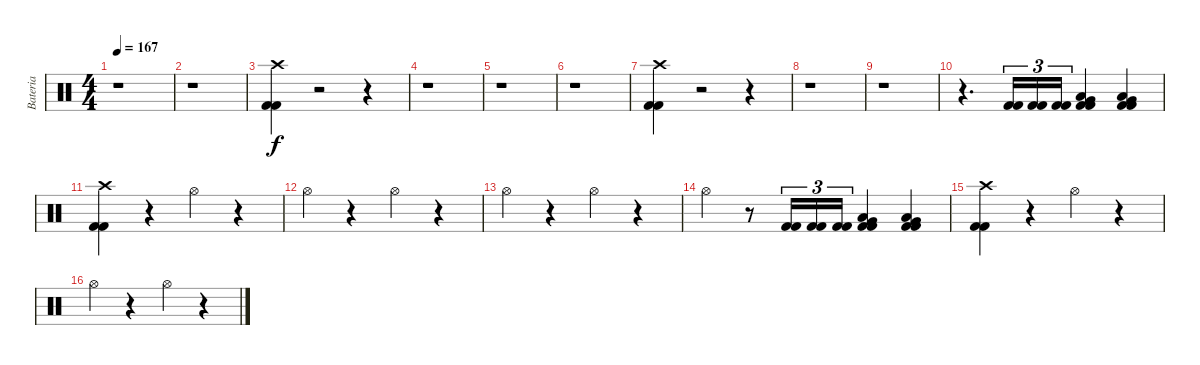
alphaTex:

\track ("Bateria" "Bateria") {instrument percussion}
\staff {score}
\articulation defaults
\ts (4 4)
\tempo 167
\clef neutral
\ks c
r.1{dy f} |
r.1 |
("Kick (hit) 2" "Kick (hit) 2" "Crash high (hit)").4 r.2 r.4 |
r.1 |
r.1 |
r.1 |
("Kick (hit) 2" "Kick (hit) 2" "Crash high (hit)").4 r.2 r.4 |
r.1 |
r.1 |
r.4{d} ("Kick (hit) 2" "Kick (hit) 2").16{tu (3 2)} ("Kick (hit) 2" "Kick (hit) 2").16{tu (3 2)} ("Kick (hit) 2" "Kick (hit) 2").16{tu (3 2)} ("Kick (hit) 2" "Kick (hit) 2" "Low Tom (hit)" "Very Low Tom (hit)").4 ("Kick (hit) 2" "Kick (hit) 2" "Low Tom (hit)" "Very Low Tom (hit)").4 |
("Kick (hit) 2" "Kick (hit) 2" "Crash high (hit)").4 r.4 "Hi-Hat (open)".4 r.4 |
"Hi-Hat (open)".4 r.4 "Hi-Hat (open)".4 r.4 |
"Hi-Hat (open)".4 r.4 "Hi-Hat (open)".4 r.4 |
"Hi-Hat (open)".4 r.8 ("Kick (hit) 2" "Kick (hit) 2").16{tu (3 2)} ("Kick (hit) 2" "Kick (hit) 2").16{tu (3 2)} ("Kick (hit) 2" "Kick (hit) 2").16{tu (3 2)} ("Kick (hit) 2" "Kick (hit) 2" "Low Tom (hit)" "Very Low Tom (hit)").4 ("Kick (hit) 2" "Kick (hit) 2" "Low Tom (hit)" "Very Low Tom (hit)").4 |
("Kick (hit) 2" "Kick (hit) 2" "Crash high (hit)").4 r.4 "Hi-Hat (open)".4 r.4 |
"Hi-Hat (open)".4 r.4 "Hi-Hat (open)".4 r.4
